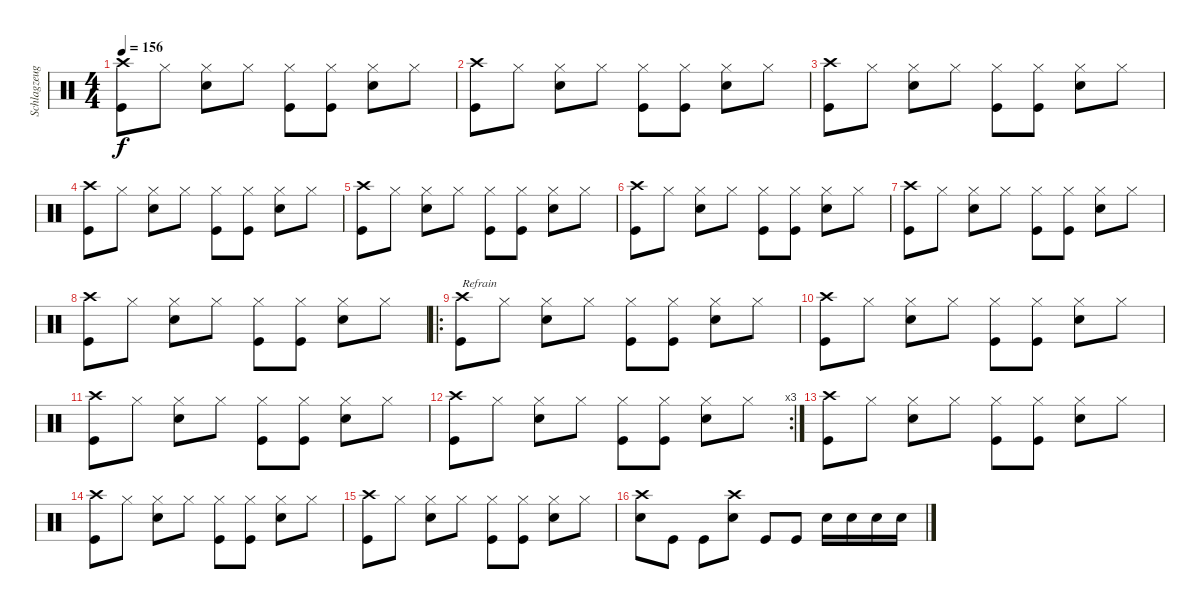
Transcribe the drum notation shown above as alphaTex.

\track ("Schlagzeug" "Schlagzeug") {instrument percussion}
\staff {score}
\articulation defaults
\ts (4 4)
\tempo 156
\clef neutral
\ks c
("Crash high (hit)" "Kick (hit)").8{dy f} "Hi-Hat (closed)".8 ("Hi-Hat (closed)" "Electric Snare (hit)").8 "Hi-Hat (closed)".8 ("Hi-Hat (closed)" "Kick (hit)").8 ("Hi-Hat (closed)" "Kick (hit)").8 ("Hi-Hat (closed)" "Electric Snare (hit)").8 "Hi-Hat (closed)".8 |
("Crash high (hit)" "Kick (hit)").8 "Hi-Hat (closed)".8 ("Hi-Hat (closed)" "Electric Snare (hit)").8 "Hi-Hat (closed)".8 ("Hi-Hat (closed)" "Kick (hit)").8 ("Hi-Hat (closed)" "Kick (hit)").8 ("Hi-Hat (closed)" "Electric Snare (hit)").8 "Hi-Hat (closed)".8 |
("Crash high (hit)" "Kick (hit)").8 "Hi-Hat (closed)".8 ("Hi-Hat (closed)" "Electric Snare (hit)").8 "Hi-Hat (closed)".8 ("Hi-Hat (closed)" "Kick (hit)").8 ("Hi-Hat (closed)" "Kick (hit)").8 ("Hi-Hat (closed)" "Electric Snare (hit)").8 "Hi-Hat (closed)".8 |
("Crash high (hit)" "Kick (hit)").8 "Hi-Hat (closed)".8 ("Hi-Hat (closed)" "Electric Snare (hit)").8 "Hi-Hat (closed)".8 ("Hi-Hat (closed)" "Kick (hit)").8 ("Hi-Hat (closed)" "Kick (hit)").8 ("Hi-Hat (closed)" "Electric Snare (hit)").8 "Hi-Hat (closed)".8 |
("Crash high (hit)" "Kick (hit)").8 "Hi-Hat (closed)".8 ("Hi-Hat (closed)" "Electric Snare (hit)").8 "Hi-Hat (closed)".8 ("Hi-Hat (closed)" "Kick (hit)").8 ("Hi-Hat (closed)" "Kick (hit)").8 ("Hi-Hat (closed)" "Electric Snare (hit)").8 "Hi-Hat (closed)".8 |
("Crash high (hit)" "Kick (hit)").8 "Hi-Hat (closed)".8 ("Hi-Hat (closed)" "Electric Snare (hit)").8 "Hi-Hat (closed)".8 ("Hi-Hat (closed)" "Kick (hit)").8 ("Hi-Hat (closed)" "Kick (hit)").8 ("Hi-Hat (closed)" "Electric Snare (hit)").8 "Hi-Hat (closed)".8 |
("Crash high (hit)" "Kick (hit)").8 "Hi-Hat (closed)".8 ("Hi-Hat (closed)" "Electric Snare (hit)").8 "Hi-Hat (closed)".8 ("Hi-Hat (closed)" "Kick (hit)").8 ("Hi-Hat (closed)" "Kick (hit)").8 ("Hi-Hat (closed)" "Electric Snare (hit)").8 "Hi-Hat (closed)".8 |
("Crash high (hit)" "Kick (hit)").8 "Hi-Hat (closed)".8 ("Hi-Hat (closed)" "Electric Snare (hit)").8 "Hi-Hat (closed)".8 ("Hi-Hat (closed)" "Kick (hit)").8 ("Hi-Hat (closed)" "Kick (hit)").8 ("Hi-Hat (closed)" "Electric Snare (hit)").8 "Hi-Hat (closed)".8 |
\ro
("Crash high (hit)" "Kick (hit)").8{txt "Refrain"} "Hi-Hat (closed)".8 ("Hi-Hat (closed)" "Electric Snare (hit)").8 "Hi-Hat (closed)".8 ("Hi-Hat (closed)" "Kick (hit)").8 ("Hi-Hat (closed)" "Kick (hit)").8 ("Hi-Hat (closed)" "Electric Snare (hit)").8 "Hi-Hat (closed)".8 |
("Crash high (hit)" "Kick (hit)").8 "Hi-Hat (closed)".8 ("Hi-Hat (closed)" "Electric Snare (hit)").8 "Hi-Hat (closed)".8 ("Hi-Hat (closed)" "Kick (hit)").8 ("Hi-Hat (closed)" "Kick (hit)").8 ("Hi-Hat (closed)" "Electric Snare (hit)").8 "Hi-Hat (closed)".8 |
("Crash high (hit)" "Kick (hit)").8 "Hi-Hat (closed)".8 ("Hi-Hat (closed)" "Electric Snare (hit)").8 "Hi-Hat (closed)".8 ("Hi-Hat (closed)" "Kick (hit)").8 ("Hi-Hat (closed)" "Kick (hit)").8 ("Hi-Hat (closed)" "Electric Snare (hit)").8 "Hi-Hat (closed)".8 |
\rc 3
("Crash high (hit)" "Kick (hit)").8 "Hi-Hat (closed)".8 ("Hi-Hat (closed)" "Electric Snare (hit)").8 "Hi-Hat (closed)".8 ("Hi-Hat (closed)" "Kick (hit)").8 ("Hi-Hat (closed)" "Kick (hit)").8 ("Hi-Hat (closed)" "Electric Snare (hit)").8 "Hi-Hat (closed)".8 |
("Crash high (hit)" "Kick (hit)").8 "Hi-Hat (closed)".8 ("Hi-Hat (closed)" "Electric Snare (hit)").8 "Hi-Hat (closed)".8 ("Hi-Hat (closed)" "Kick (hit)").8 ("Hi-Hat (closed)" "Kick (hit)").8 ("Hi-Hat (closed)" "Electric Snare (hit)").8 "Hi-Hat (closed)".8 |
("Crash high (hit)" "Kick (hit)").8 "Hi-Hat (closed)".8 ("Hi-Hat (closed)" "Electric Snare (hit)").8 "Hi-Hat (closed)".8 ("Hi-Hat (closed)" "Kick (hit)").8 ("Hi-Hat (closed)" "Kick (hit)").8 ("Hi-Hat (closed)" "Electric Snare (hit)").8 "Hi-Hat (closed)".8 |
("Crash high (hit)" "Kick (hit)").8 "Hi-Hat (closed)".8 ("Hi-Hat (closed)" "Electric Snare (hit)").8 "Hi-Hat (closed)".8 ("Hi-Hat (closed)" "Kick (hit)").8 ("Hi-Hat (closed)" "Kick (hit)").8 ("Hi-Hat (closed)" "Electric Snare (hit)").8 "Hi-Hat (closed)".8 |
("Crash high (hit)" "Electric Snare (hit)").8 "Kick (hit)".8 "Kick (hit)".8 ("Crash high (hit)" "Electric Snare (hit)").8 "Kick (hit)".8 "Kick (hit)".8 "Electric Snare (hit)".16 "Electric Snare (hit)".16 "Electric Snare (hit)".16 "Electric Snare (hit)".16
